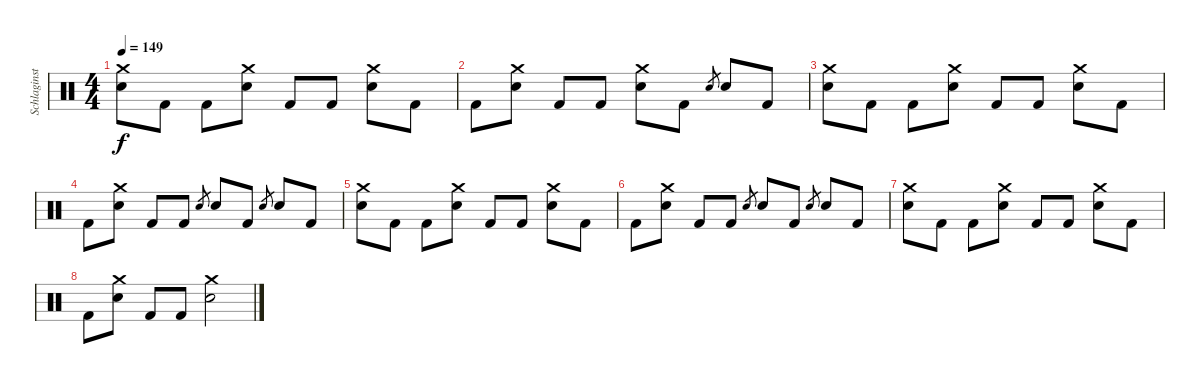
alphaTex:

\track ("Schlaginstrumente - Auswahl" "Schlaginst") {instrument percussion}
\staff {score}
\articulation defaults
\ts (4 4)
\tempo 149
\clef neutral
\ks c
("Crash medium (hit)" "Electric Snare (hit)").8{dy f} "Kick (hit) 2".8 "Kick (hit) 2".8 ("Crash medium (hit)" "Electric Snare (hit)").8 "Kick (hit) 2".8 "Kick (hit) 2".8 ("Crash medium (hit)" "Electric Snare (hit)").8 "Kick (hit) 2".8 |
"Kick (hit) 2".8 ("Crash medium (hit)" "Electric Snare (hit)").8 "Kick (hit) 2".8 "Kick (hit) 2".8 ("Crash medium (hit)" "Electric Snare (hit)").8 "Kick (hit) 2".8 "Electric Snare (hit)".8{gr} "Electric Snare (hit)".8 "Kick (hit) 2".8 |
("Crash medium (hit)" "Electric Snare (hit)").8 "Kick (hit) 2".8 "Kick (hit) 2".8 ("Crash medium (hit)" "Electric Snare (hit)").8 "Kick (hit) 2".8 "Kick (hit) 2".8 ("Crash medium (hit)" "Electric Snare (hit)").8 "Kick (hit) 2".8 |
"Kick (hit) 2".8 ("Crash medium (hit)" "Electric Snare (hit)").8 "Kick (hit) 2".8 "Kick (hit) 2".8 "Electric Snare (hit)".8{gr} "Electric Snare (hit)".8 "Kick (hit) 2".8 "Electric Snare (hit)".8{gr} "Electric Snare (hit)".8 "Kick (hit) 2".8 |
("Crash medium (hit)" "Electric Snare (hit)").8 "Kick (hit) 2".8 "Kick (hit) 2".8 ("Crash medium (hit)" "Electric Snare (hit)").8 "Kick (hit) 2".8 "Kick (hit) 2".8 ("Crash medium (hit)" "Electric Snare (hit)").8 "Kick (hit) 2".8 |
"Kick (hit) 2".8 ("Crash medium (hit)" "Electric Snare (hit)").8 "Kick (hit) 2".8 "Kick (hit) 2".8 "Electric Snare (hit)".8{gr} "Electric Snare (hit)".8 "Kick (hit) 2".8 "Electric Snare (hit)".8{gr} "Electric Snare (hit)".8 "Kick (hit) 2".8 |
("Crash medium (hit)" "Electric Snare (hit)").8 "Kick (hit) 2".8 "Kick (hit) 2".8 ("Crash medium (hit)" "Electric Snare (hit)").8 "Kick (hit) 2".8 "Kick (hit) 2".8 ("Crash medium (hit)" "Electric Snare (hit)").8 "Kick (hit) 2".8 |
"Kick (hit) 2".8 ("Crash medium (hit)" "Electric Snare (hit)").8 "Kick (hit) 2".8 "Kick (hit) 2".8 ("Crash medium (hit)" "Electric Snare (hit)").2
